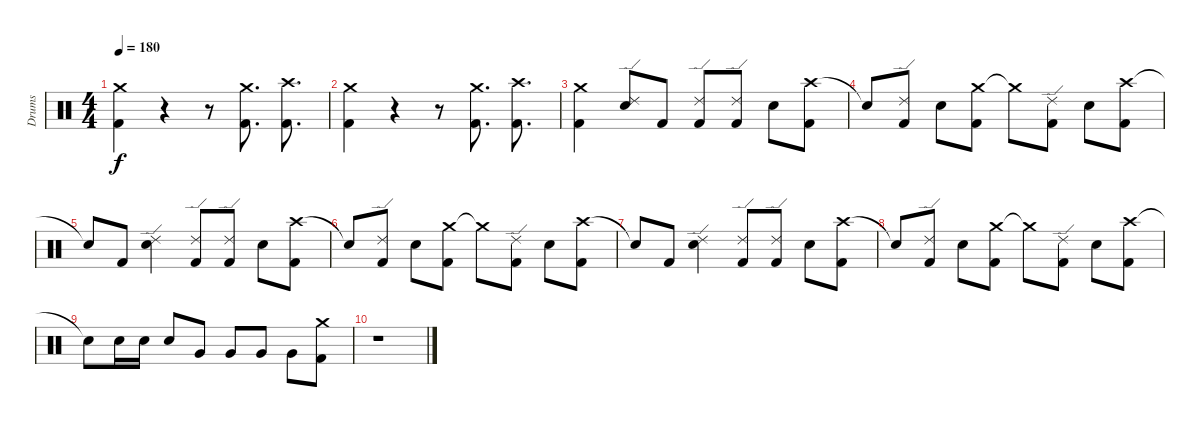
\track ("Drums" "Drums") {instrument percussion}
\staff {score}
\articulation defaults
\ts (4 4)
\tempo 180
\clef neutral
\ks c
("Crash medium (hit)" "Kick (hit) 2").4{dy f} r.4 r.8 ("Crash medium (hit)" "Kick (hit) 2").8{d} ("Crash high (hit)" "Kick (hit) 2").8{d} |
("Crash medium (hit)" "Kick (hit) 2").4 r.4 r.8 ("Crash medium (hit)" "Kick (hit) 2").8{d} ("Crash high (hit)" "Kick (hit) 2").8{d} |
("Crash medium (hit)" "Kick (hit) 2").4 ("Ride (edge) 2" "Electric Snare (hit)").8 "Kick (hit) 2".8 ("Ride (edge) 2" "Kick (hit) 2").8 ("Ride (edge) 2" "Kick (hit) 2").8 "Electric Snare (hit)".8 ("Crash high (hit)" "Kick (hit) 2").8 |
"Snare (hit)"{t}.8 ("Ride (edge) 2" "Kick (hit) 2").8 "Electric Snare (hit)".8 ("Crash medium (hit)" "Kick (hit) 2").8 "Crash medium (hit)"{t}.8 ("Ride (edge) 2" "Kick (hit) 2").8 "Electric Snare (hit)".8 ("Crash high (hit)" "Kick (hit) 2").8 |
"Snare (hit)"{t}.8 "Kick (hit) 2".8 ("Ride (edge) 2" "Electric Snare (hit)").4 ("Ride (edge) 2" "Kick (hit) 2").8 ("Ride (edge) 2" "Kick (hit) 2").8 "Electric Snare (hit)".8 ("Crash high (hit)" "Kick (hit) 2").8 |
"Snare (hit)"{t}.8 ("Ride (edge) 2" "Kick (hit) 2").8 "Electric Snare (hit)".8 ("Crash medium (hit)" "Kick (hit) 2").8 "Crash medium (hit)"{t}.8 ("Ride (edge) 2" "Kick (hit) 2").8 "Electric Snare (hit)".8 ("Crash high (hit)" "Kick (hit) 2").8 |
"Snare (hit)"{t}.8 "Kick (hit) 2".8 ("Ride (edge) 2" "Electric Snare (hit)").4 ("Ride (edge) 2" "Kick (hit) 2").8 ("Ride (edge) 2" "Kick (hit) 2").8 "Electric Snare (hit)".8 ("Crash high (hit)" "Kick (hit) 2").8 |
"Snare (hit)"{t}.8 ("Ride (edge) 2" "Kick (hit) 2").8 "Electric Snare (hit)".8 ("Crash medium (hit)" "Kick (hit) 2").8 "Crash medium (hit)"{t}.8 ("Ride (edge) 2" "Kick (hit) 2").8 "Electric Snare (hit)".8 ("Crash high (hit)" "Kick (hit) 2").8 |
"Snare (hit)"{t}.8 "Electric Snare (hit)".16 "Electric Snare (hit)".16 "Electric Snare (hit)".8 "Very Low Tom (hit)".8 "Very Low Tom (hit)".8 "Very Low Tom (hit)".8 "Very Low Tom (hit)".8 ("Crash medium (hit)" "Kick (hit) 2").8 |
r.1
